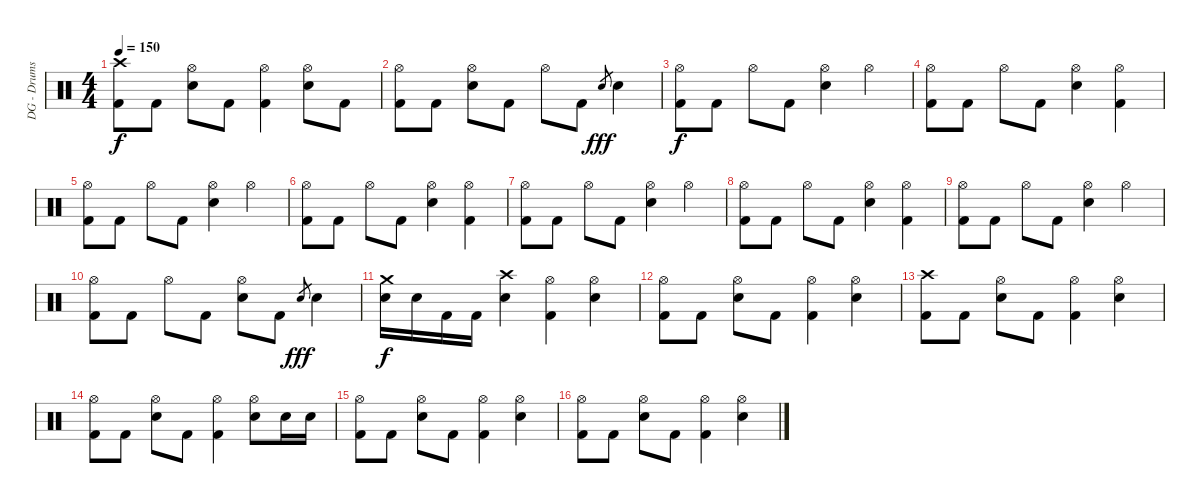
\track ("DG - Drums" "DG - Drums") {instrument percussion}
\staff {score}
\articulation defaults
\ts (4 4)
\tempo 150
\clef neutral
\ks c
("Crash high (hit)" "Kick (hit) 2").8{dy f} "Kick (hit) 2".8 ("Hi-Hat (open)" "Electric Snare (hit)").8 "Kick (hit) 2".8 ("Hi-Hat (open)" "Kick (hit) 2").4 ("Hi-Hat (open)" "Electric Snare (hit)").8 "Kick (hit) 2".8 |
("Hi-Hat (open)" "Kick (hit) 2").8 "Kick (hit) 2".8 ("Hi-Hat (open)" "Electric Snare (hit)").8 "Kick (hit) 2".8 "Hi-Hat (open)".8 "Kick (hit) 2".8 "Electric Snare (hit)".8{gr dy fff} "Electric Snare (hit)".4 |
("Hi-Hat (open)" "Kick (hit) 2").8{dy f} "Kick (hit) 2".8 "Hi-Hat (open)".8 "Kick (hit) 2".8 ("Hi-Hat (open)" "Electric Snare (hit)").4 "Hi-Hat (open)".4 |
("Hi-Hat (open)" "Kick (hit) 2").8 "Kick (hit) 2".8 "Hi-Hat (open)".8 "Kick (hit) 2".8 ("Hi-Hat (open)" "Electric Snare (hit)").4 ("Hi-Hat (open)" "Kick (hit) 2").4 |
("Hi-Hat (open)" "Kick (hit) 2").8 "Kick (hit) 2".8 "Hi-Hat (open)".8 "Kick (hit) 2".8 ("Hi-Hat (open)" "Electric Snare (hit)").4 "Hi-Hat (open)".4 |
("Hi-Hat (open)" "Kick (hit) 2").8 "Kick (hit) 2".8 "Hi-Hat (open)".8 "Kick (hit) 2".8 ("Hi-Hat (open)" "Electric Snare (hit)").4 ("Hi-Hat (open)" "Kick (hit) 2").4 |
("Hi-Hat (open)" "Kick (hit) 2").8 "Kick (hit) 2".8 "Hi-Hat (open)".8 "Kick (hit) 2".8 ("Hi-Hat (open)" "Electric Snare (hit)").4 "Hi-Hat (open)".4 |
("Hi-Hat (open)" "Kick (hit) 2").8 "Kick (hit) 2".8 "Hi-Hat (open)".8 "Kick (hit) 2".8 ("Hi-Hat (open)" "Electric Snare (hit)").4 ("Hi-Hat (open)" "Kick (hit) 2").4 |
("Hi-Hat (open)" "Kick (hit) 2").8 "Kick (hit) 2".8 "Hi-Hat (open)".8 "Kick (hit) 2".8 ("Hi-Hat (open)" "Electric Snare (hit)").4 "Hi-Hat (open)".4 |
("Hi-Hat (open)" "Kick (hit) 2").8 "Kick (hit) 2".8 "Hi-Hat (open)".8 "Kick (hit) 2".8 ("Hi-Hat (open)" "Electric Snare (hit)").8 "Kick (hit) 2".8 "Electric Snare (hit)".8{gr dy fff} "Electric Snare (hit)".4 |
("Crash medium (hit)" "Electric Snare (hit)").16{dy f} "Electric Snare (hit)".16 "Kick (hit) 2".16 "Kick (hit) 2".16 ("Crash high (hit)" "Electric Snare (hit)").4 ("Hi-Hat (open)" "Kick (hit) 2").4 ("Hi-Hat (open)" "Electric Snare (hit)").4 |
("Hi-Hat (open)" "Kick (hit) 2").8 "Kick (hit) 2".8 ("Hi-Hat (open)" "Electric Snare (hit)").8 "Kick (hit) 2".8 ("Hi-Hat (open)" "Kick (hit) 2").4 ("Hi-Hat (open)" "Electric Snare (hit)").4 |
("Crash high (hit)" "Kick (hit) 2").8 "Kick (hit) 2".8 ("Hi-Hat (open)" "Electric Snare (hit)").8 "Kick (hit) 2".8 ("Hi-Hat (open)" "Kick (hit) 2").4 ("Hi-Hat (open)" "Electric Snare (hit)").4 |
("Hi-Hat (open)" "Kick (hit) 2").8 "Kick (hit) 2".8 ("Hi-Hat (open)" "Electric Snare (hit)").8 "Kick (hit) 2".8 ("Hi-Hat (open)" "Kick (hit) 2").4 ("Hi-Hat (open)" "Electric Snare (hit)").8 "Electric Snare (hit)".16 "Electric Snare (hit)".16 |
("Hi-Hat (open)" "Kick (hit) 2").8 "Kick (hit) 2".8 ("Hi-Hat (open)" "Electric Snare (hit)").8 "Kick (hit) 2".8 ("Hi-Hat (open)" "Kick (hit) 2").4 ("Hi-Hat (open)" "Electric Snare (hit)").4 |
("Hi-Hat (open)" "Kick (hit) 2").8 "Kick (hit) 2".8 ("Hi-Hat (open)" "Electric Snare (hit)").8 "Kick (hit) 2".8 ("Hi-Hat (open)" "Kick (hit) 2").4 ("Hi-Hat (open)" "Electric Snare (hit)").4
